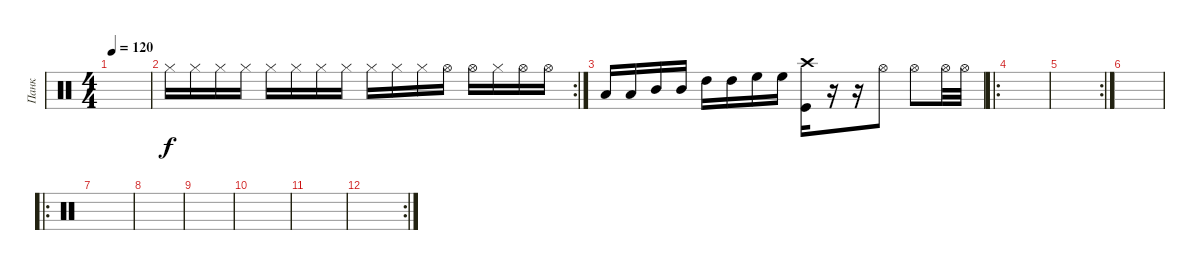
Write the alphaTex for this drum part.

\track ("Панк" "Панк") {instrument percussion}
\staff {score}
\articulation defaults
\ts (4 4)
\tempo 120
\clef neutral
\ks c
|
\rc 2 "Hi-Hat (closed)".16 "Hi-Hat (closed)".16 "Hi-Hat (closed)".16 "Hi-Hat (closed)".16 "Hi-Hat (closed)".16 "Hi-Hat (closed)".16 "Hi-Hat (closed)".16 "Hi-Hat (closed)".16 "Hi-Hat (closed)".16 "Hi-Hat (closed)".16 "Hi-Hat (closed)".16 "Hi-Hat (open)".16 "Hi-Hat (open)".16 "Hi-Hat (closed)".16 "Hi-Hat (open)".16 "Hi-Hat (open)".16
|
"Low Tom (hit)".16 "Low Tom (hit)".16 "Mid Tom (hit)".16 "Mid Tom (hit)".16 "High Tom (hit)".16 "High Tom (hit)".16 "High Floor Tom (hit)".16 "High Floor Tom (hit)".16 ("Kick (hit)" "Crash high (hit)").16 r.16 r.16 "Hi-Hat (open)".8 "Hi-Hat (open)".8 "Hi-Hat (open)".32 "Hi-Hat (open)".32 |
\ro
|
\rc 2
|
|
\ro
|
|
|
|
|
\rc 2
